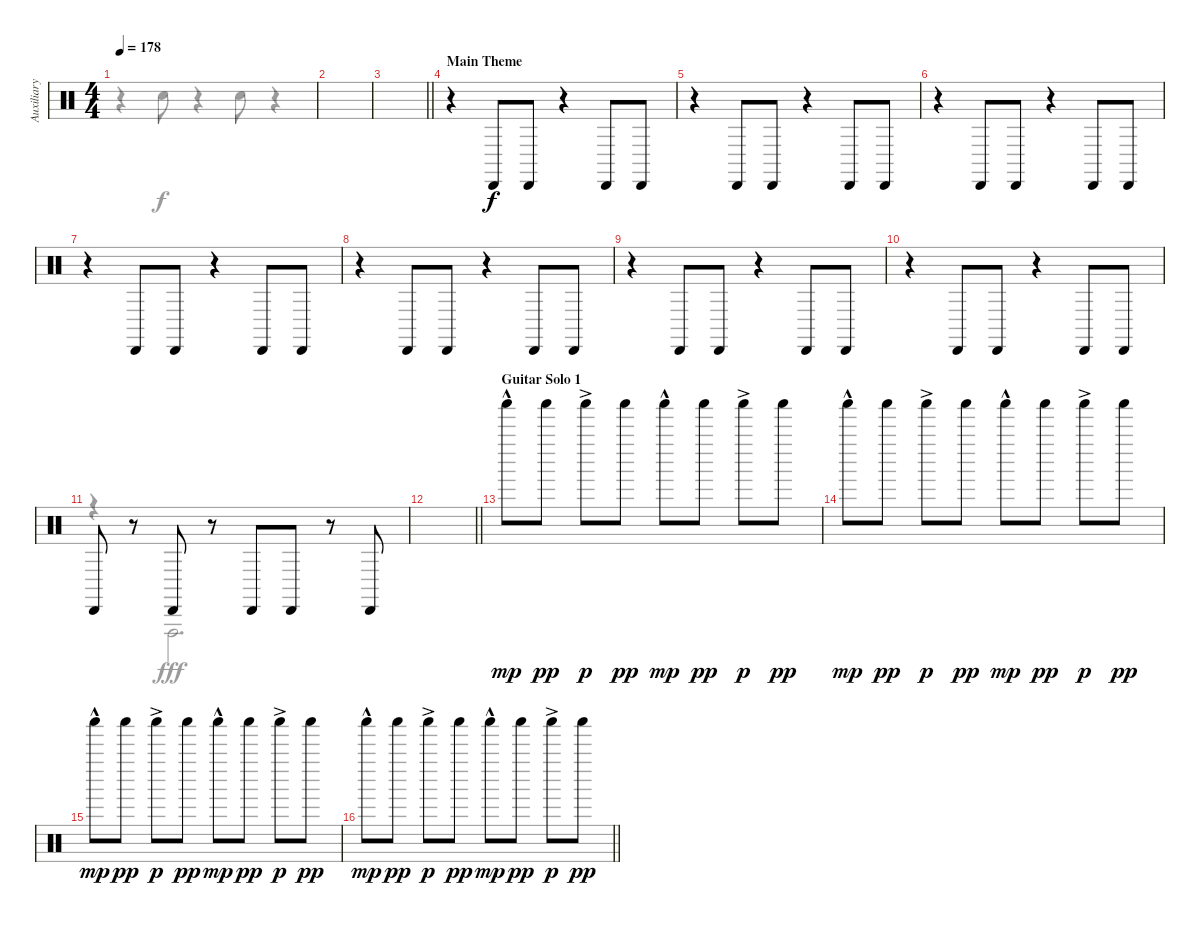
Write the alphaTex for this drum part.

\track ("Auxiliary Percussion" "Auxiliary ") {instrument percussion}
\staff {score}
\articulation defaults
\voice
\ts (4 4)
\tempo 178
\clef neutral
\ks c
|
|
\barLineRight lightlight
|
\section ("" "Main Theme")
r.4 "Cabasa (hit)".8 "Cabasa (hit)".8 r.4 "Cabasa (hit)".8 "Cabasa (hit)".8 |
r.4 "Cabasa (hit)".8 "Cabasa (hit)".8 r.4 "Cabasa (hit)".8 "Cabasa (hit)".8 |
r.4 "Cabasa (hit)".8 "Cabasa (hit)".8 r.4 "Cabasa (hit)".8 "Cabasa (hit)".8 |
r.4 "Cabasa (hit)".8 "Cabasa (hit)".8 r.4 "Cabasa (hit)".8 "Cabasa (hit)".8 |
r.4 "Cabasa (hit)".8 "Cabasa (hit)".8 r.4 "Cabasa (hit)".8 "Cabasa (hit)".8 |
r.4 "Cabasa (hit)".8 "Cabasa (hit)".8 r.4 "Cabasa (hit)".8 "Cabasa (hit)".8 |
r.4 "Cabasa (hit)".8 "Cabasa (hit)".8 r.4 "Cabasa (hit)".8 "Cabasa (hit)".8 |
"Cabasa (hit)".8{dy f} r.8 "Cabasa (hit)".8 r.8 "Cabasa (hit)".8 "Cabasa (hit)".8 r.8 "Cabasa (hit)".8 |
\barLineRight lightlight
|
\section ("" "Guitar Solo 1")
"Shaker (hit)"{hac}.8{dy mp} "Shaker (hit)".8{dy pp} "Shaker (hit)"{ac}.8{dy p} "Shaker (hit)".8{dy pp} "Shaker (hit)"{hac}.8{dy mp} "Shaker (hit)".8{dy pp} "Shaker (hit)"{ac}.8{dy p} "Shaker (hit)".8{dy pp} |
"Shaker (hit)"{hac}.8{dy mp} "Shaker (hit)".8{dy pp} "Shaker (hit)"{ac}.8{dy p} "Shaker (hit)".8{dy pp} "Shaker (hit)"{hac}.8{dy mp} "Shaker (hit)".8{dy pp} "Shaker (hit)"{ac}.8{dy p} "Shaker (hit)".8{dy pp} |
"Shaker (hit)"{hac}.8{dy mp} "Shaker (hit)".8{dy pp} "Shaker (hit)"{ac}.8{dy p} "Shaker (hit)".8{dy pp} "Shaker (hit)"{hac}.8{dy mp} "Shaker (hit)".8{dy pp} "Shaker (hit)"{ac}.8{dy p} "Shaker (hit)".8{dy pp} |
\barLineRight lightlight "Shaker (hit)"{hac}.8{dy mp} "Shaker (hit)".8{dy pp} "Shaker (hit)"{ac}.8{dy p} "Shaker (hit)".8{dy pp} "Shaker (hit)"{hac}.8{dy mp} "Shaker (hit)".8{dy pp} "Shaker (hit)"{ac}.8{dy p} "Shaker (hit)".8{dy pp}
\voice
\clef neutral
\ottava regular
\simile none
\ks c
r.4{dy f} "Hand Clap (hit)".8 r.4 "Hand Clap (hit)".8 r.4 |
|
\barLineRight lightlight
|
|
|
|
|
|
|
|
r.4 "Vibraslap (hit)".2{d dy fff} |
\barLineRight lightlight
|
|
|
|
\barLineRight lightlight
